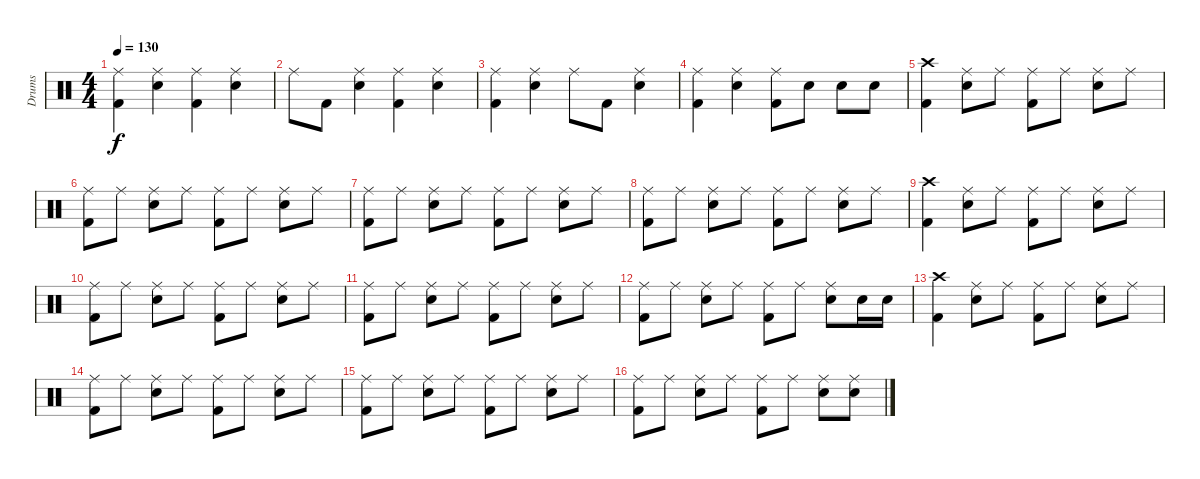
\track ("Drums" "Drums") {instrument percussion}
\staff {score}
\articulation defaults
\ts (4 4)
\tempo 130
\clef neutral
\ks c
("Ride (middle)" "Kick (hit) 2").4{dy f} ("Ride (middle)" "Electric Snare (hit)").4 ("Ride (middle)" "Kick (hit) 2").4 ("Ride (middle)" "Electric Snare (hit)").4 |
"Ride (middle)".8 "Kick (hit) 2".8 ("Ride (middle)" "Electric Snare (hit)").4 ("Ride (middle)" "Kick (hit) 2").4 ("Ride (middle)" "Electric Snare (hit)").4 |
("Ride (middle)" "Kick (hit) 2").4 ("Ride (middle)" "Electric Snare (hit)").4 "Ride (middle)".8 "Kick (hit) 2".8 ("Ride (middle)" "Electric Snare (hit)").4 |
("Ride (middle)" "Kick (hit) 2").4 ("Ride (middle)" "Electric Snare (hit)").4 ("Ride (middle)" "Kick (hit) 2").8 "Electric Snare (hit)".8 "Electric Snare (hit)".8 "Electric Snare (hit)".8 |
("Crash high (hit)" "Kick (hit) 2").4 ("Ride (middle)" "Electric Snare (hit)").8 "Ride (middle)".8 ("Ride (middle)" "Kick (hit) 2").8 "Ride (middle)".8 ("Ride (middle)" "Electric Snare (hit)").8 "Ride (middle)".8 |
("Ride (middle)" "Kick (hit) 2").8 "Ride (middle)".8 ("Ride (middle)" "Electric Snare (hit)").8 "Ride (middle)".8 ("Ride (middle)" "Kick (hit) 2").8 "Ride (middle)".8 ("Ride (middle)" "Electric Snare (hit)").8 "Ride (middle)".8 |
("Ride (middle)" "Kick (hit) 2").8 "Ride (middle)".8 ("Ride (middle)" "Electric Snare (hit)").8 "Ride (middle)".8 ("Ride (middle)" "Kick (hit) 2").8 "Ride (middle)".8 ("Ride (middle)" "Electric Snare (hit)").8 "Ride (middle)".8 |
("Ride (middle)" "Kick (hit) 2").8 "Ride (middle)".8 ("Ride (middle)" "Electric Snare (hit)").8 "Ride (middle)".8 ("Ride (middle)" "Kick (hit) 2").8 "Ride (middle)".8 ("Ride (middle)" "Electric Snare (hit)").8 "Ride (middle)".8 |
("Crash high (hit)" "Kick (hit) 2").4 ("Ride (middle)" "Electric Snare (hit)").8 "Ride (middle)".8 ("Ride (middle)" "Kick (hit) 2").8 "Ride (middle)".8 ("Ride (middle)" "Electric Snare (hit)").8 "Ride (middle)".8 |
("Ride (middle)" "Kick (hit) 2").8 "Ride (middle)".8 ("Ride (middle)" "Electric Snare (hit)").8 "Ride (middle)".8 ("Ride (middle)" "Kick (hit) 2").8 "Ride (middle)".8 ("Ride (middle)" "Electric Snare (hit)").8 "Ride (middle)".8 |
("Ride (middle)" "Kick (hit) 2").8 "Ride (middle)".8 ("Ride (middle)" "Electric Snare (hit)").8 "Ride (middle)".8 ("Ride (middle)" "Kick (hit) 2").8 "Ride (middle)".8 ("Ride (middle)" "Electric Snare (hit)").8 "Ride (middle)".8 |
("Ride (middle)" "Kick (hit) 2").8 "Ride (middle)".8 ("Ride (middle)" "Electric Snare (hit)").8 "Ride (middle)".8 ("Ride (middle)" "Kick (hit) 2").8 "Ride (middle)".8 ("Ride (middle)" "Electric Snare (hit)").8 "Electric Snare (hit)".16 "Electric Snare (hit)".16 |
("Crash high (hit)" "Kick (hit) 2").4 ("Ride (middle)" "Electric Snare (hit)").8 "Ride (middle)".8 ("Ride (middle)" "Kick (hit) 2").8 "Ride (middle)".8 ("Ride (middle)" "Electric Snare (hit)").8 "Ride (middle)".8 |
("Ride (middle)" "Kick (hit) 2").8 "Ride (middle)".8 ("Ride (middle)" "Electric Snare (hit)").8 "Ride (middle)".8 ("Ride (middle)" "Kick (hit) 2").8 "Ride (middle)".8 ("Ride (middle)" "Electric Snare (hit)").8 "Ride (middle)".8 |
("Ride (middle)" "Kick (hit) 2").8 "Ride (middle)".8 ("Ride (middle)" "Electric Snare (hit)").8 "Ride (middle)".8 ("Ride (middle)" "Kick (hit) 2").8 "Ride (middle)".8 ("Ride (middle)" "Electric Snare (hit)").8 "Ride (middle)".8 |
("Ride (middle)" "Kick (hit) 2").8 "Ride (middle)".8 ("Ride (middle)" "Electric Snare (hit)").8 "Ride (middle)".8 ("Ride (middle)" "Kick (hit) 2").8 "Ride (middle)".8 ("Ride (middle)" "Electric Snare (hit)").8 ("Ride (middle)" "Electric Snare (hit)").8
